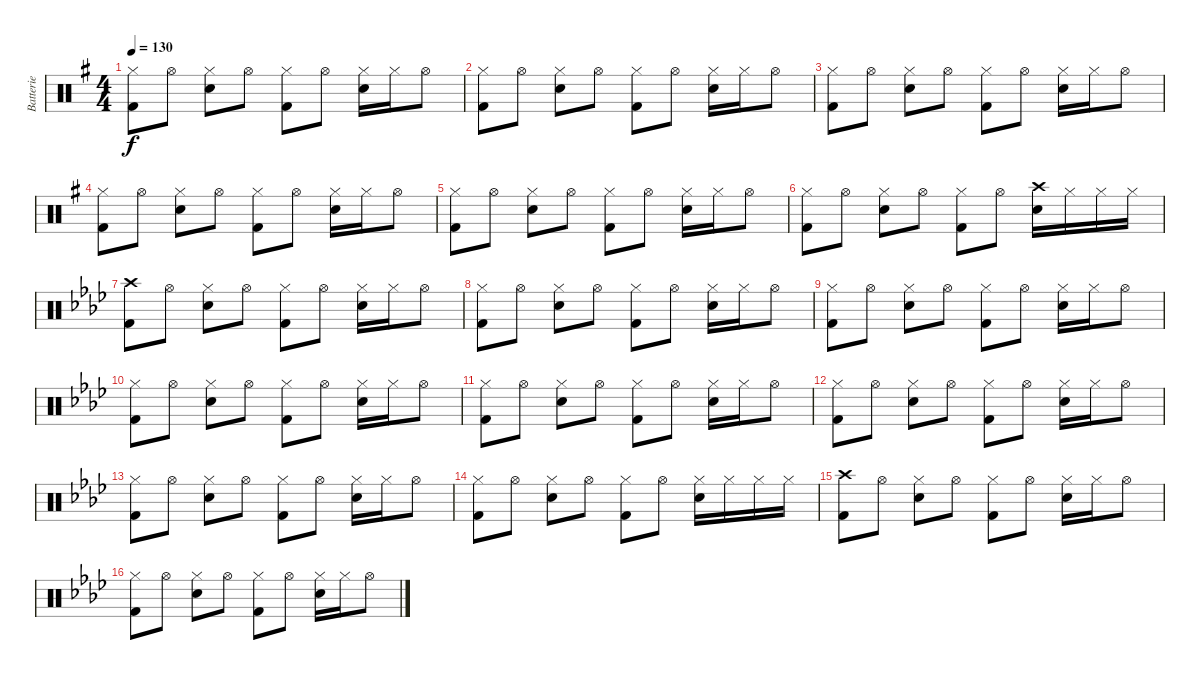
\track ("Batterie" "Batterie") {instrument percussion}
\staff {score}
\articulation defaults
\ts (4 4)
\tempo 130
\clef neutral
\ks g
("Hi-Hat (closed)" "Kick (hit) 2").8{dy f} "Hi-Hat (open)".8 ("Hi-Hat (closed)" "Snare (hit) 2").8 "Hi-Hat (open)".8 ("Hi-Hat (closed)" "Kick (hit) 2").8 "Hi-Hat (open)".8 ("Hi-Hat (closed)" "Snare (hit) 2").16 "Hi-Hat (closed)".16 "Hi-Hat (open)".8 |
("Hi-Hat (closed)" "Kick (hit) 2").8 "Hi-Hat (open)".8 ("Hi-Hat (closed)" "Snare (hit) 2").8 "Hi-Hat (open)".8 ("Hi-Hat (closed)" "Kick (hit) 2").8 "Hi-Hat (open)".8 ("Hi-Hat (closed)" "Snare (hit) 2").16 "Hi-Hat (closed)".16 "Hi-Hat (open)".8 |
("Hi-Hat (closed)" "Kick (hit) 2").8 "Hi-Hat (open)".8 ("Hi-Hat (closed)" "Snare (hit) 2").8 "Hi-Hat (open)".8 ("Hi-Hat (closed)" "Kick (hit) 2").8 "Hi-Hat (open)".8 ("Hi-Hat (closed)" "Snare (hit) 2").16 "Hi-Hat (closed)".16 "Hi-Hat (open)".8 |
("Hi-Hat (closed)" "Kick (hit) 2").8 "Hi-Hat (open)".8 ("Hi-Hat (closed)" "Snare (hit) 2").8 "Hi-Hat (open)".8 ("Hi-Hat (closed)" "Kick (hit) 2").8 "Hi-Hat (open)".8 ("Hi-Hat (closed)" "Snare (hit) 2").16 "Hi-Hat (closed)".16 "Hi-Hat (open)".8 |
("Hi-Hat (closed)" "Kick (hit) 2").8 "Hi-Hat (open)".8 ("Hi-Hat (closed)" "Snare (hit) 2").8 "Hi-Hat (open)".8 ("Hi-Hat (closed)" "Kick (hit) 2").8 "Hi-Hat (open)".8 ("Hi-Hat (closed)" "Snare (hit) 2").16 "Hi-Hat (closed)".16 "Hi-Hat (open)".8 |
("Hi-Hat (closed)" "Kick (hit) 2").8 "Hi-Hat (open)".8 ("Hi-Hat (closed)" "Snare (hit) 2").8 "Hi-Hat (open)".8 ("Hi-Hat (closed)" "Kick (hit) 2").8 "Hi-Hat (open)".8 ("Crash high (hit)" "Snare (hit) 2").16 "Hi-Hat (closed)".16 "Hi-Hat (closed)".16 "Hi-Hat (closed)".16 |
\ks ab
("Crash high (hit)" "Kick (hit) 2").8 "Hi-Hat (open)".8 ("Hi-Hat (closed)" "Snare (hit) 2").8 "Hi-Hat (open)".8 ("Hi-Hat (closed)" "Kick (hit) 2").8 "Hi-Hat (open)".8 ("Hi-Hat (closed)" "Snare (hit) 2").16 "Hi-Hat (closed)".16 "Hi-Hat (open)".8 |
("Hi-Hat (closed)" "Kick (hit) 2").8 "Hi-Hat (open)".8 ("Hi-Hat (closed)" "Snare (hit) 2").8 "Hi-Hat (open)".8 ("Hi-Hat (closed)" "Kick (hit) 2").8 "Hi-Hat (open)".8 ("Hi-Hat (closed)" "Snare (hit) 2").16 "Hi-Hat (closed)".16 "Hi-Hat (open)".8 |
("Hi-Hat (closed)" "Kick (hit) 2").8 "Hi-Hat (open)".8 ("Hi-Hat (closed)" "Snare (hit) 2").8 "Hi-Hat (open)".8 ("Hi-Hat (closed)" "Kick (hit) 2").8 "Hi-Hat (open)".8 ("Hi-Hat (closed)" "Snare (hit) 2").16 "Hi-Hat (closed)".16 "Hi-Hat (open)".8 |
("Hi-Hat (closed)" "Kick (hit) 2").8 "Hi-Hat (open)".8 ("Hi-Hat (closed)" "Snare (hit) 2").8 "Hi-Hat (open)".8 ("Hi-Hat (closed)" "Kick (hit) 2").8 "Hi-Hat (open)".8 ("Hi-Hat (closed)" "Snare (hit) 2").16 "Hi-Hat (closed)".16 "Hi-Hat (open)".8 |
("Hi-Hat (closed)" "Kick (hit) 2").8 "Hi-Hat (open)".8 ("Hi-Hat (closed)" "Snare (hit) 2").8 "Hi-Hat (open)".8 ("Hi-Hat (closed)" "Kick (hit) 2").8 "Hi-Hat (open)".8 ("Hi-Hat (closed)" "Snare (hit) 2").16 "Hi-Hat (closed)".16 "Hi-Hat (open)".8 |
("Hi-Hat (closed)" "Kick (hit) 2").8 "Hi-Hat (open)".8 ("Hi-Hat (closed)" "Snare (hit) 2").8 "Hi-Hat (open)".8 ("Hi-Hat (closed)" "Kick (hit) 2").8 "Hi-Hat (open)".8 ("Hi-Hat (closed)" "Snare (hit) 2").16 "Hi-Hat (closed)".16 "Hi-Hat (open)".8 |
("Hi-Hat (closed)" "Kick (hit) 2").8 "Hi-Hat (open)".8 ("Hi-Hat (closed)" "Snare (hit) 2").8 "Hi-Hat (open)".8 ("Hi-Hat (closed)" "Kick (hit) 2").8 "Hi-Hat (open)".8 ("Hi-Hat (closed)" "Snare (hit) 2").16 "Hi-Hat (closed)".16 "Hi-Hat (open)".8 |
("Hi-Hat (closed)" "Kick (hit) 2").8 "Hi-Hat (open)".8 ("Hi-Hat (closed)" "Snare (hit) 2").8 "Hi-Hat (open)".8 ("Hi-Hat (closed)" "Kick (hit) 2").8 "Hi-Hat (open)".8 ("Hi-Hat (closed)" "Snare (hit) 2").16 "Hi-Hat (closed)".16 "Hi-Hat (closed)".16 "Hi-Hat (closed)".16 |
("Crash high (hit)" "Kick (hit) 2").8 "Hi-Hat (open)".8 ("Hi-Hat (closed)" "Snare (hit) 2").8 "Hi-Hat (open)".8 ("Hi-Hat (closed)" "Kick (hit) 2").8 "Hi-Hat (open)".8 ("Hi-Hat (closed)" "Snare (hit) 2").16 "Hi-Hat (closed)".16 "Hi-Hat (open)".8 |
("Hi-Hat (closed)" "Kick (hit) 2").8 "Hi-Hat (open)".8 ("Hi-Hat (closed)" "Snare (hit) 2").8 "Hi-Hat (open)".8 ("Hi-Hat (closed)" "Kick (hit) 2").8 "Hi-Hat (open)".8 ("Hi-Hat (closed)" "Snare (hit) 2").16 "Hi-Hat (closed)".16 "Hi-Hat (open)".8
